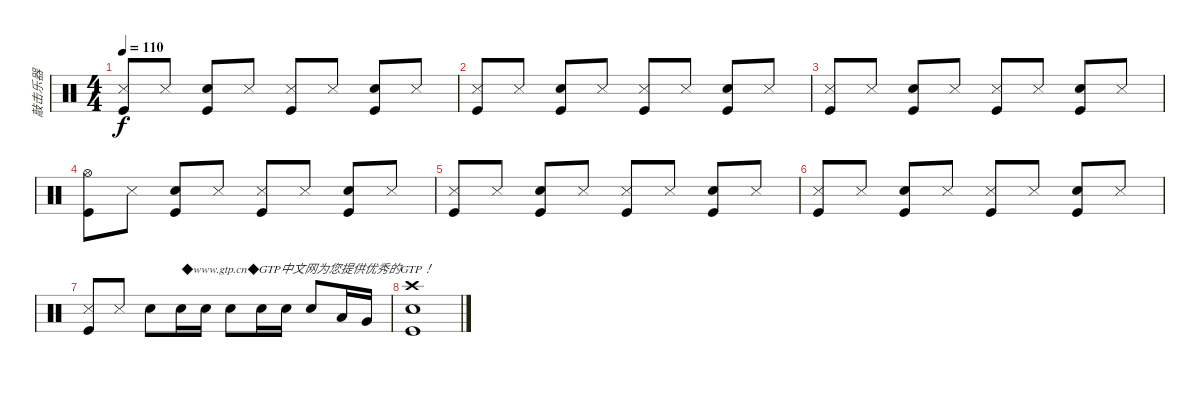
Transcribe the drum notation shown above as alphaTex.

\track ("敲击乐器" "敲击乐器") {instrument percussion}
\staff {score}
\articulation defaults
\ts (4 4)
\tempo 110
\clef neutral
\ks c
("Snare (side stick) 3" "Kick (hit)").8{dy f} "Snare (side stick) 3".8 ("Snare (hit) 2" "Kick (hit)").8 "Snare (side stick) 3".8 ("Snare (side stick) 3" "Kick (hit)").8 "Snare (side stick) 3".8 ("Snare (hit) 2" "Kick (hit)").8 "Snare (side stick) 3".8 |
("Snare (side stick) 3" "Kick (hit)").8 "Snare (side stick) 3".8 ("Snare (hit) 2" "Kick (hit)").8 "Snare (side stick) 3".8 ("Snare (side stick) 3" "Kick (hit)").8 "Snare (side stick) 3".8 ("Snare (hit) 2" "Kick (hit)").8 "Snare (side stick) 3".8 |
("Snare (side stick) 3" "Kick (hit)").8 "Snare (side stick) 3".8 ("Snare (hit) 2" "Kick (hit)").8 "Snare (side stick) 3".8 ("Snare (side stick) 3" "Kick (hit)").8 "Snare (side stick) 3".8 ("Snare (hit) 2" "Kick (hit)").8 "Snare (side stick) 3".8 |
("Hi-Hat (open)" "Kick (hit)").8 "Snare (side stick) 3".8 ("Snare (hit) 2" "Kick (hit)").8 "Snare (side stick) 3".8 ("Snare (side stick) 3" "Kick (hit)").8 "Snare (side stick) 3".8 ("Snare (hit) 2" "Kick (hit)").8 "Snare (side stick) 3".8 |
("Snare (side stick) 3" "Kick (hit)").8 "Snare (side stick) 3".8 ("Snare (hit) 2" "Kick (hit)").8 "Snare (side stick) 3".8 ("Snare (side stick) 3" "Kick (hit)").8 "Snare (side stick) 3".8 ("Snare (hit) 2" "Kick (hit)").8 "Snare (side stick) 3".8 |
("Snare (side stick) 3" "Kick (hit)").8 "Snare (side stick) 3".8 ("Snare (hit) 2" "Kick (hit)").8 "Snare (side stick) 3".8 ("Snare (side stick) 3" "Kick (hit)").8 "Snare (side stick) 3".8 ("Snare (hit) 2" "Kick (hit)").8 "Snare (side stick) 3".8 |
("Snare (side stick) 3" "Kick (hit)").8 "Snare (side stick) 3".8 "Snare (hit) 2".8 "Snare (hit) 2".16{txt "◆www.gtp.cn◆GTP中文网为您提供优秀的GTP！"} "Snare (hit) 2".16 "Snare (hit) 2".8 "Snare (hit) 2".16 "Snare (hit) 2".16 "Snare (hit) 2".8 "Low Tom (hit)".16 "Very Low Tom (hit)".16 |
("Crash high (hit)" "Snare (hit) 2" "Kick (hit)").1
